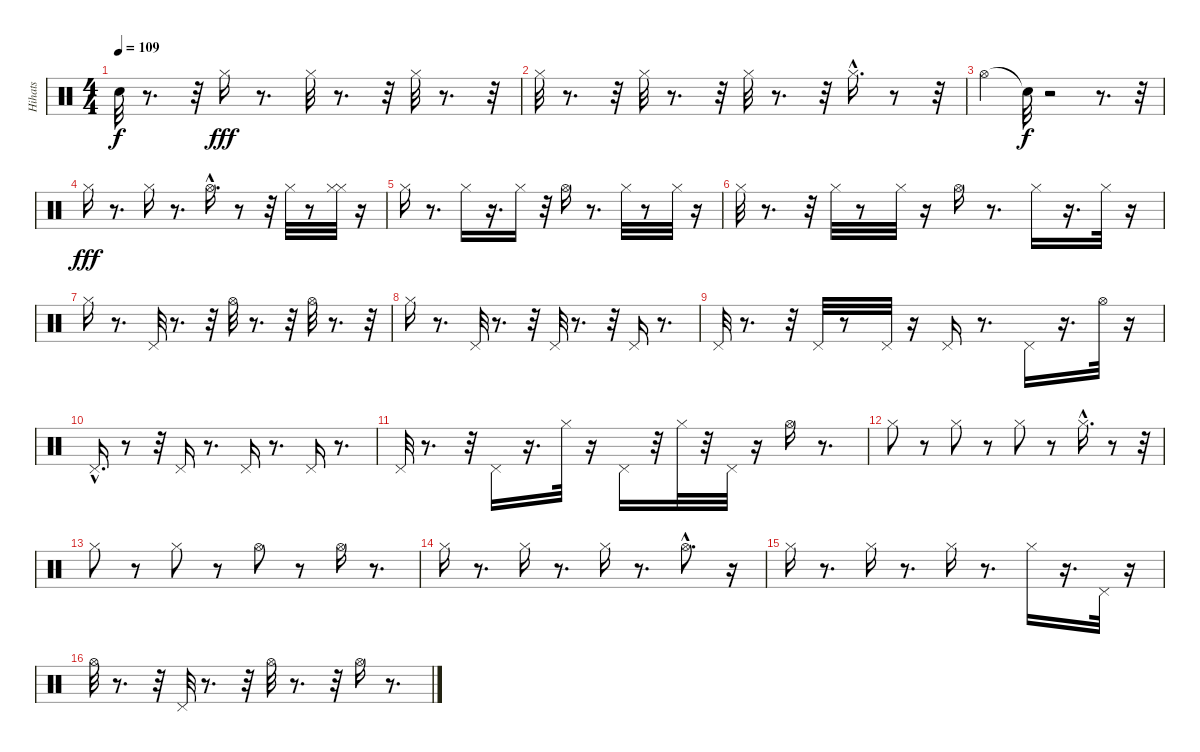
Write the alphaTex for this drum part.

\track ("Hihats          " "Hihats    ") {instrument percussion}
\staff {score}
\articulation defaults
\ts (4 4)
\tempo 109
\clef neutral
\ks c "Snare (hit)"{t}.32{dy f}
r.8{d} r.32 "Hi-Hat (closed)".16{dy fff} r.8{d} "Hi-Hat (closed)".32 r.8{d} r.32 "Hi-Hat (closed)".32 r.8{d} r.32 |
"Hi-Hat (closed)".32 r.8{d} r.32 "Hi-Hat (closed)".32 r.8{d} r.32 "Hi-Hat (closed)".32 r.8{d} r.32 "Hi-Hat (closed)"{hac}.16{d} r.8 r.32 |
"Hi-Hat (open)".4 "Snare (hit)"{t}.32{dy f} r.2 r.8{d} r.32 |
"Hi-Hat (closed)".16{dy fff} r.8{d} "Hi-Hat (closed)".16 r.8{d} "Hi-Hat (open)"{hac}.16{d} r.8 r.32 "Hi-Hat (closed)".32 r.8 ("Hi-Hat (closed)" "Hi-Hat (closed)").32 r.16 |
"Hi-Hat (closed)".16 r.8{d} "Hi-Hat (closed)".16 r.16{d} "Hi-Hat (closed)".16 r.32 "Hi-Hat (open)".16 r.8{d} "Hi-Hat (closed)".32 r.8 "Hi-Hat (closed)".32 r.16 |
"Hi-Hat (closed)".32 r.8{d} r.32 "Hi-Hat (closed)".32 r.8 "Hi-Hat (closed)".32 r.16 "Hi-Hat (open)".16 r.8{d} "Hi-Hat (closed)".16 r.16{d} "Hi-Hat (closed)".32 r.16 |
"Hi-Hat (closed)".16 r.8{d} "Pedal Hi-Hat (hit)".32 r.8{d} r.32 "Hi-Hat (open)".32 r.8{d} r.32 "Hi-Hat (open)".32 r.8{d} r.32 |
"Hi-Hat (closed)".16 r.8{d} "Pedal Hi-Hat (hit)".32 r.8{d} r.32 "Pedal Hi-Hat (hit)".32 r.8{d} r.32 "Pedal Hi-Hat (hit)".16 r.8{d} |
"Pedal Hi-Hat (hit)".32 r.8{d} r.32 "Pedal Hi-Hat (hit)".32 r.8 "Pedal Hi-Hat (hit)".32 r.16 "Pedal Hi-Hat (hit)".16 r.8{d} "Pedal Hi-Hat (hit)".16 r.16{d} "Hi-Hat (open)".32 r.16 |
"Pedal Hi-Hat (hit)"{hac}.16{d} r.8 r.32 "Pedal Hi-Hat (hit)".16 r.8{d} "Pedal Hi-Hat (hit)".16 r.8{d} "Pedal Hi-Hat (hit)".16 r.8{d} |
"Pedal Hi-Hat (hit)".32 r.8{d} r.32 "Pedal Hi-Hat (hit)".16 r.16{d} "Hi-Hat (closed)".32 r.16 "Pedal Hi-Hat (hit)".16 r.32 "Hi-Hat (closed)".32 r.32 "Pedal Hi-Hat (hit)".32 r.16 "Hi-Hat (open)".16 r.8{d} |
"Hi-Hat (closed)".8 r.8 "Hi-Hat (closed)".8 r.8 "Hi-Hat (closed)".8 r.8 "Hi-Hat (closed)"{hac}.16{d} r.8 r.32 |
"Hi-Hat (closed)".8 r.8 "Hi-Hat (closed)".8 r.8 "Hi-Hat (open)".8 r.8 "Hi-Hat (open)".16 r.8{d} |
"Hi-Hat (closed)".16 r.8{d} "Hi-Hat (closed)".16 r.8{d} "Hi-Hat (closed)".16 r.8{d} "Hi-Hat (open)"{hac}.8{d} r.16 |
"Hi-Hat (closed)".16 r.8{d} "Hi-Hat (closed)".16 r.8{d} "Hi-Hat (closed)".16 r.8{d} "Hi-Hat (closed)".16 r.16{d} "Pedal Hi-Hat (hit)".32 r.16 |
"Hi-Hat (open)".32 r.8{d} r.32 "Pedal Hi-Hat (hit)".32 r.8{d} r.32 "Hi-Hat (open)".32 r.8{d} r.32 "Hi-Hat (open)".16 r.8{d}
